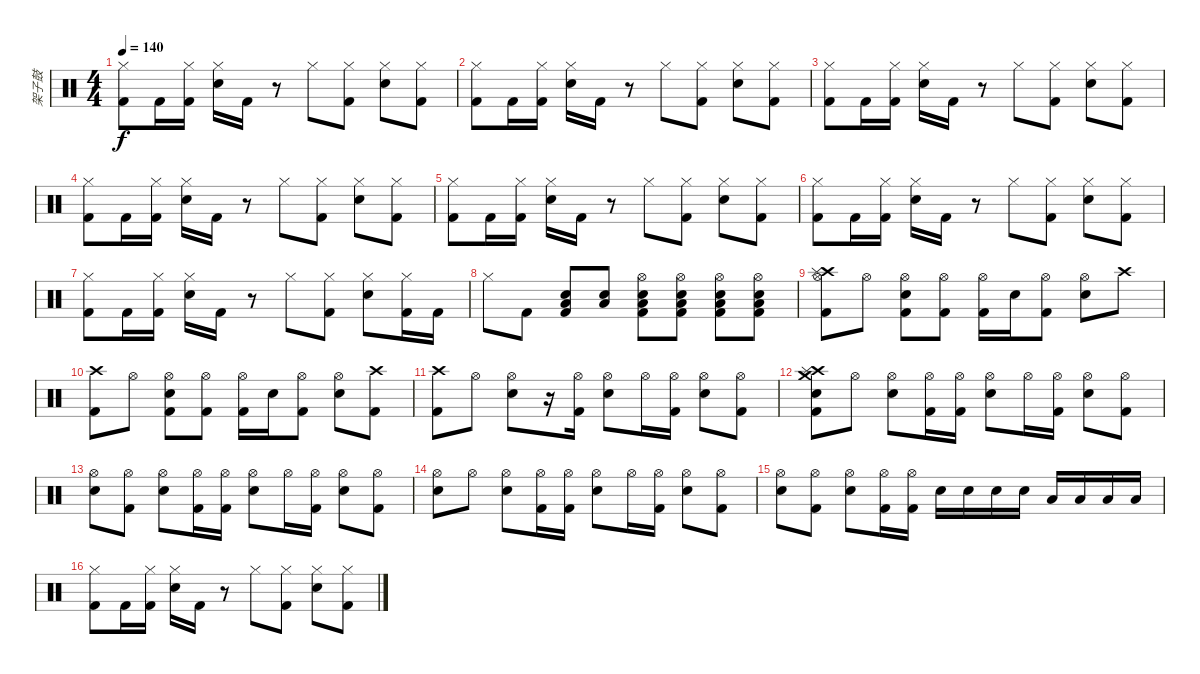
\track ("架子鼓" "架子鼓") {instrument percussion}
\staff {score}
\articulation defaults
\ts (4 4)
\tempo 140
\clef neutral
\ks c
("Hi-Hat (closed)" "Kick (hit) 2").8{dy f} "Kick (hit) 2".16 ("Hi-Hat (closed)" "Kick (hit) 2").16 ("Hi-Hat (closed)" "Snare (hit) 2").16 "Kick (hit) 2".16 r.8 "Hi-Hat (closed)".8 ("Hi-Hat (closed)" "Kick (hit) 2").8 ("Hi-Hat (closed)" "Snare (hit) 2").8 ("Hi-Hat (closed)" "Kick (hit) 2").8 |
("Hi-Hat (closed)" "Kick (hit) 2").8 "Kick (hit) 2".16 ("Hi-Hat (closed)" "Kick (hit) 2").16 ("Hi-Hat (closed)" "Snare (hit) 2").16 "Kick (hit) 2".16 r.8 "Hi-Hat (closed)".8 ("Hi-Hat (closed)" "Kick (hit) 2").8 ("Hi-Hat (closed)" "Snare (hit) 2").8 ("Hi-Hat (closed)" "Kick (hit) 2").8 |
("Hi-Hat (closed)" "Kick (hit) 2").8 "Kick (hit) 2".16 ("Hi-Hat (closed)" "Kick (hit) 2").16 ("Hi-Hat (closed)" "Snare (hit) 2").16 "Kick (hit) 2".16 r.8 "Hi-Hat (closed)".8 ("Hi-Hat (closed)" "Kick (hit) 2").8 ("Hi-Hat (closed)" "Snare (hit) 2").8 ("Hi-Hat (closed)" "Kick (hit) 2").8 |
("Hi-Hat (closed)" "Kick (hit) 2").8 "Kick (hit) 2".16 ("Hi-Hat (closed)" "Kick (hit) 2").16 ("Hi-Hat (closed)" "Snare (hit) 2").16 "Kick (hit) 2".16 r.8 "Hi-Hat (closed)".8 ("Hi-Hat (closed)" "Kick (hit) 2").8 ("Hi-Hat (closed)" "Snare (hit) 2").8 ("Hi-Hat (closed)" "Kick (hit) 2").8 |
("Hi-Hat (closed)" "Kick (hit) 2").8 "Kick (hit) 2".16 ("Hi-Hat (closed)" "Kick (hit) 2").16 ("Hi-Hat (closed)" "Snare (hit) 2").16 "Kick (hit) 2".16 r.8 "Hi-Hat (closed)".8 ("Hi-Hat (closed)" "Kick (hit) 2").8 ("Hi-Hat (closed)" "Snare (hit) 2").8 ("Hi-Hat (closed)" "Kick (hit) 2").8 |
("Hi-Hat (closed)" "Kick (hit) 2").8 "Kick (hit) 2".16 ("Hi-Hat (closed)" "Kick (hit) 2").16 ("Hi-Hat (closed)" "Snare (hit) 2").16 "Kick (hit) 2".16 r.8 "Hi-Hat (closed)".8 ("Hi-Hat (closed)" "Kick (hit) 2").8 ("Hi-Hat (closed)" "Snare (hit) 2").8 ("Hi-Hat (closed)" "Kick (hit) 2").8 |
("Hi-Hat (closed)" "Kick (hit) 2").8 "Kick (hit) 2".16 ("Hi-Hat (closed)" "Kick (hit) 2").16 ("Hi-Hat (closed)" "Snare (hit) 2").16 "Kick (hit) 2".16 r.8 "Hi-Hat (closed)".8 ("Hi-Hat (closed)" "Kick (hit) 2").8 ("Hi-Hat (closed)" "Snare (hit) 2").8 ("Hi-Hat (closed)" "Kick (hit) 2").16 "Kick (hit) 2".16 |
"Hi-Hat (closed)".8 "Kick (hit) 2".8 ("Snare (hit) 2" "Low Tom (hit)" "Kick (hit) 2").8 ("Snare (hit) 2" "Low Tom (hit)").8 ("Hi-Hat (open)" "Snare (hit) 2" "Low Tom (hit)" "Kick (hit) 2").8 ("Hi-Hat (open)" "Snare (hit) 2" "Low Tom (hit)" "Kick (hit) 2").8 ("Hi-Hat (open)" "Snare (hit) 2" "Low Tom (hit)" "Kick (hit) 2").8 ("Hi-Hat (open)" "Snare (hit) 2" "Low Tom (hit)" "Kick (hit) 2").8 |
("Crash high (hit)" "Splash (hit)" "Hi-Hat (open)" "Kick (hit) 2").8 "Hi-Hat (open)".8 ("Hi-Hat (open)" "Snare (hit) 2" "Kick (hit) 2").8 ("Hi-Hat (open)" "Kick (hit) 2").8 ("Hi-Hat (open)" "Kick (hit) 2").16 "Snare (hit) 2".16 ("Hi-Hat (open)" "Kick (hit) 2").8 ("Hi-Hat (open)" "Snare (hit) 2").8 "Crash high (hit)".8 |
("Crash high (hit)" "Kick (hit) 2").8 "Hi-Hat (open)".8 ("Hi-Hat (open)" "Snare (hit) 2" "Kick (hit) 2").8 ("Hi-Hat (open)" "Kick (hit) 2").8 ("Hi-Hat (open)" "Kick (hit) 2").16 "Snare (hit) 2".16 ("Hi-Hat (open)" "Kick (hit) 2").8 ("Hi-Hat (open)" "Snare (hit) 2").8 ("Crash high (hit)" "Kick (hit) 2").8 |
("Crash high (hit)" "Kick (hit) 2").8 "Hi-Hat (open)".8 ("Hi-Hat (open)" "Snare (hit) 2").8 r.16 ("Hi-Hat (open)" "Kick (hit) 2").16 ("Hi-Hat (open)" "Snare (hit) 2").8 "Hi-Hat (open)".16 ("Hi-Hat (open)" "Kick (hit) 2").16 ("Hi-Hat (open)" "Snare (hit) 2").8 ("Hi-Hat (open)" "Kick (hit) 2").8 |
("Crash high (hit)" "Splash (hit)" "Snare (hit) 2" "Crash medium (hit)" "Kick (hit) 2").8 "Hi-Hat (open)".8 ("Hi-Hat (open)" "Snare (hit) 2").8 ("Hi-Hat (open)" "Kick (hit) 2").16 ("Hi-Hat (open)" "Kick (hit) 2").16 ("Hi-Hat (open)" "Snare (hit) 2").8 "Hi-Hat (open)".16 ("Hi-Hat (open)" "Kick (hit) 2").16 ("Hi-Hat (open)" "Snare (hit) 2").8 ("Hi-Hat (open)" "Kick (hit) 2").8 |
("Hi-Hat (open)" "Snare (hit) 2").8 ("Hi-Hat (open)" "Kick (hit) 2").8 ("Hi-Hat (open)" "Snare (hit) 2").8 ("Hi-Hat (open)" "Kick (hit) 2").16 ("Hi-Hat (open)" "Kick (hit) 2").16 ("Hi-Hat (open)" "Snare (hit) 2").8 "Hi-Hat (open)".16 ("Hi-Hat (open)" "Kick (hit) 2").16 ("Hi-Hat (open)" "Snare (hit) 2").8 ("Hi-Hat (open)" "Kick (hit) 2").8 |
("Hi-Hat (open)" "Snare (hit) 2").8 "Hi-Hat (open)".8 ("Hi-Hat (open)" "Snare (hit) 2").8 ("Hi-Hat (open)" "Kick (hit) 2").16 ("Hi-Hat (open)" "Kick (hit) 2").16 ("Hi-Hat (open)" "Snare (hit) 2").8 "Hi-Hat (open)".16 ("Hi-Hat (open)" "Kick (hit) 2").16 ("Hi-Hat (open)" "Snare (hit) 2").8 ("Hi-Hat (open)" "Kick (hit) 2").8 |
("Hi-Hat (open)" "Snare (hit) 2").8 ("Hi-Hat (open)" "Kick (hit) 2").8 ("Hi-Hat (open)" "Snare (hit) 2").8 ("Hi-Hat (open)" "Kick (hit) 2").16 ("Hi-Hat (open)" "Kick (hit) 2").16 "Snare (hit) 2".16 "Snare (hit) 2".16 "Snare (hit) 2".16 "Snare (hit) 2".16 "Low Tom (hit)".16 "Low Tom (hit)".16 "Low Tom (hit)".16 "Low Tom (hit)".16 |
("Hi-Hat (closed)" "Kick (hit) 2").8 "Kick (hit) 2".16 ("Hi-Hat (closed)" "Kick (hit) 2").16 ("Hi-Hat (closed)" "Snare (hit) 2").16 "Kick (hit) 2".16 r.8 "Hi-Hat (closed)".8 ("Hi-Hat (closed)" "Kick (hit) 2").8 ("Hi-Hat (closed)" "Snare (hit) 2").8 ("Hi-Hat (closed)" "Kick (hit) 2").8
